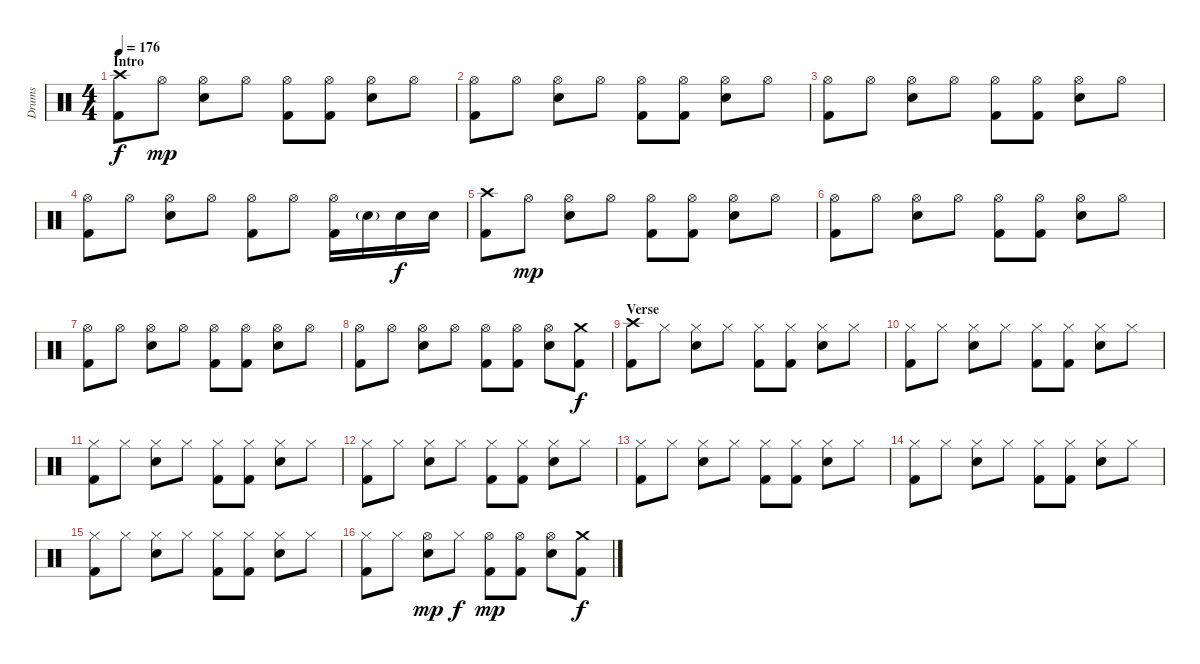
\track ("Drums" "Drums") {instrument percussion}
\staff {score}
\articulation defaults
\ts (4 4)
\section ("" "Intro")
\tempo 176
\clef neutral
\ks c
("Crash high (hit)" "Kick (hit) 2").8{dy f} "Hi-Hat (open)".8{dy mp} ("Hi-Hat (open)" "Electric Snare (hit)").8 "Hi-Hat (open)".8 ("Hi-Hat (open)" "Kick (hit) 2").8 ("Hi-Hat (open)" "Kick (hit) 2").8 ("Hi-Hat (open)" "Electric Snare (hit)").8 "Hi-Hat (open)".8 |
("Hi-Hat (open)" "Kick (hit) 2").8 "Hi-Hat (open)".8 ("Hi-Hat (open)" "Electric Snare (hit)").8 "Hi-Hat (open)".8 ("Hi-Hat (open)" "Kick (hit) 2").8 ("Hi-Hat (open)" "Kick (hit) 2").8 ("Hi-Hat (open)" "Electric Snare (hit)").8 "Hi-Hat (open)".8 |
("Hi-Hat (open)" "Kick (hit) 2").8 "Hi-Hat (open)".8 ("Hi-Hat (open)" "Electric Snare (hit)").8 "Hi-Hat (open)".8 ("Hi-Hat (open)" "Kick (hit) 2").8 ("Hi-Hat (open)" "Kick (hit) 2").8 ("Hi-Hat (open)" "Electric Snare (hit)").8 "Hi-Hat (open)".8 |
("Hi-Hat (open)" "Kick (hit) 2").8 "Hi-Hat (open)".8 ("Hi-Hat (open)" "Electric Snare (hit)").8 "Hi-Hat (open)".8 ("Hi-Hat (open)" "Kick (hit) 2").8 "Hi-Hat (open)".8 ("Hi-Hat (open)" "Kick (hit) 2").16 "Electric Snare (hit)"{g}.16 "Electric Snare (hit)".16{dy f} "Electric Snare (hit)".16 |
("Crash high (hit)" "Kick (hit) 2").8 "Hi-Hat (open)".8{dy mp} ("Hi-Hat (open)" "Electric Snare (hit)").8 "Hi-Hat (open)".8 ("Hi-Hat (open)" "Kick (hit) 2").8 ("Hi-Hat (open)" "Kick (hit) 2").8 ("Hi-Hat (open)" "Electric Snare (hit)").8 "Hi-Hat (open)".8 |
("Hi-Hat (open)" "Kick (hit) 2").8 "Hi-Hat (open)".8 ("Hi-Hat (open)" "Electric Snare (hit)").8 "Hi-Hat (open)".8 ("Hi-Hat (open)" "Kick (hit) 2").8 ("Hi-Hat (open)" "Kick (hit) 2").8 ("Hi-Hat (open)" "Electric Snare (hit)").8 "Hi-Hat (open)".8 |
("Hi-Hat (open)" "Kick (hit) 2").8 "Hi-Hat (open)".8 ("Hi-Hat (open)" "Electric Snare (hit)").8 "Hi-Hat (open)".8 ("Hi-Hat (open)" "Kick (hit) 2").8 ("Hi-Hat (open)" "Kick (hit) 2").8 ("Hi-Hat (open)" "Electric Snare (hit)").8 "Hi-Hat (open)".8 |
("Hi-Hat (open)" "Kick (hit) 2").8 "Hi-Hat (open)".8 ("Hi-Hat (open)" "Electric Snare (hit)").8 "Hi-Hat (open)".8 ("Hi-Hat (open)" "Kick (hit) 2").8 ("Hi-Hat (open)" "Kick (hit) 2").8 ("Hi-Hat (open)" "Electric Snare (hit)").8 ("Crash medium (hit)" "Kick (hit) 2").8{dy f} |
\section ("" "Verse")
("Crash high (hit)" "Kick (hit) 2").8 "Hi-Hat (closed)".8 ("Hi-Hat (closed)" "Electric Snare (hit)").8 "Hi-Hat (closed)".8 ("Hi-Hat (closed)" "Kick (hit) 2").8 ("Hi-Hat (closed)" "Kick (hit) 2").8 ("Hi-Hat (closed)" "Electric Snare (hit)").8 "Hi-Hat (closed)".8 |
("Hi-Hat (closed)" "Kick (hit) 2").8 "Hi-Hat (closed)".8 ("Hi-Hat (closed)" "Electric Snare (hit)").8 "Hi-Hat (closed)".8 ("Hi-Hat (closed)" "Kick (hit) 2").8 ("Hi-Hat (closed)" "Kick (hit) 2").8 ("Hi-Hat (closed)" "Electric Snare (hit)").8 "Hi-Hat (closed)".8 |
("Hi-Hat (closed)" "Kick (hit) 2").8 "Hi-Hat (closed)".8 ("Hi-Hat (closed)" "Electric Snare (hit)").8 "Hi-Hat (closed)".8 ("Hi-Hat (closed)" "Kick (hit) 2").8 ("Hi-Hat (closed)" "Kick (hit) 2").8 ("Hi-Hat (closed)" "Electric Snare (hit)").8 "Hi-Hat (closed)".8 |
("Hi-Hat (closed)" "Kick (hit) 2").8 "Hi-Hat (closed)".8 ("Hi-Hat (closed)" "Electric Snare (hit)").8 "Hi-Hat (closed)".8 ("Hi-Hat (closed)" "Kick (hit) 2").8 ("Hi-Hat (closed)" "Kick (hit) 2").8 ("Hi-Hat (closed)" "Electric Snare (hit)").8 "Hi-Hat (closed)".8 |
("Hi-Hat (closed)" "Kick (hit) 2").8 "Hi-Hat (closed)".8 ("Hi-Hat (closed)" "Electric Snare (hit)").8 "Hi-Hat (closed)".8 ("Hi-Hat (closed)" "Kick (hit) 2").8 ("Hi-Hat (closed)" "Kick (hit) 2").8 ("Hi-Hat (closed)" "Electric Snare (hit)").8 "Hi-Hat (closed)".8 |
("Hi-Hat (closed)" "Kick (hit) 2").8 "Hi-Hat (closed)".8 ("Hi-Hat (closed)" "Electric Snare (hit)").8 "Hi-Hat (closed)".8 ("Hi-Hat (closed)" "Kick (hit) 2").8 ("Hi-Hat (closed)" "Kick (hit) 2").8 ("Hi-Hat (closed)" "Electric Snare (hit)").8 "Hi-Hat (closed)".8 |
("Hi-Hat (closed)" "Kick (hit) 2").8 "Hi-Hat (closed)".8 ("Hi-Hat (closed)" "Electric Snare (hit)").8 "Hi-Hat (closed)".8 ("Hi-Hat (closed)" "Kick (hit) 2").8 ("Hi-Hat (closed)" "Kick (hit) 2").8 ("Hi-Hat (closed)" "Electric Snare (hit)").8 "Hi-Hat (closed)".8 |
("Hi-Hat (closed)" "Kick (hit) 2").8 "Hi-Hat (closed)".8 ("Hi-Hat (open)" "Electric Snare (hit)").8{dy mp} "Hi-Hat (closed)".8{dy f} ("Hi-Hat (open)" "Kick (hit) 2").8{dy mp} ("Hi-Hat (open)" "Kick (hit) 2").8 ("Hi-Hat (open)" "Electric Snare (hit)").8 ("Crash medium (hit)" "Kick (hit) 2").8{dy f}
